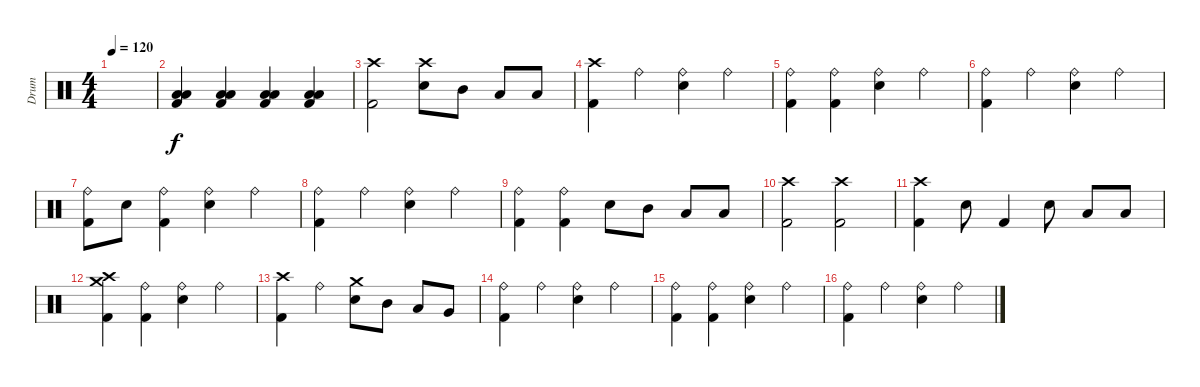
\track ("Drum" "Drum") {instrument percussion}
\staff {score}
\articulation defaults
\ts (4 4)
\tempo 120
\clef neutral
\ks c
|
("Kick (hit) 2" "Low Tom (hit)" "Low Floor Tom (hit)").4 ("Kick (hit) 2" "Low Tom (hit)" "Low Floor Tom (hit)").4 ("Kick (hit) 2" "Low Floor Tom (hit)" "Low Tom (hit)").4 ("Kick (hit) 2" "Low Floor Tom (hit)" "Low Tom (hit)").4 |
("Kick (hit) 2" "Crash high (hit)").2 ("Crash high (hit)" "Snare (hit) 2").8 "Mid Tom (hit)".8 "Low Tom (hit)".8 "Low Floor Tom (hit)".8 |
("Crash high (hit)" "Kick (hit) 2").4 "Ride (bell)".4 ("Ride (bell)" "Snare (hit) 2").4 "Ride (bell)".4 |
("Ride (bell)" "Kick (hit) 2").4 ("Ride (bell)" "Kick (hit) 2").4 ("Ride (bell)" "Snare (hit) 2").4 "Ride (bell)".4 |
("Ride (bell)" "Kick (hit) 2").4 "Ride (bell)".4 ("Ride (bell)" "Snare (hit) 2").4 "Ride (bell)".4 |
("Ride (bell)" "Kick (hit) 2").8 "Snare (hit) 2".8 ("Ride (bell)" "Kick (hit) 2").4 ("Ride (bell)" "Snare (hit) 2").4 "Ride (bell)".4 |
("Ride (bell)" "Kick (hit) 2").4 "Ride (bell)".4 ("Ride (bell)" "Snare (hit) 2").4 "Ride (bell)".4 |
("Ride (bell)" "Kick (hit) 2").4 ("Ride (bell)" "Kick (hit) 2").4 "Snare (hit) 2".8 "Mid Tom (hit)".8 "Low Tom (hit)".8 "Low Floor Tom (hit)".8 |
("Crash high (hit)" "Kick (hit) 2").2 ("Kick (hit) 2" "Crash high (hit)").2 |
("Kick (hit) 2" "Crash high (hit)").4 "Snare (hit) 2".8 "Kick (hit) 2".4 "Snare (hit) 2".8 "Low Tom (hit)".8 "Low Floor Tom (hit)".8 |
("Kick (hit) 2" "Crash high (hit)" "Crash medium (hit)").4 ("Kick (hit) 2" "Ride (bell)").4 ("Ride (bell)" "Snare (hit) 2").4 "Ride (bell)".4 |
("Kick (hit) 2" "Crash high (hit)").4 "Ride (bell)".4 ("Crash medium (hit)" "Snare (hit) 2").8 "Mid Tom (hit)".8 "Low Tom (hit)".8 "Very Low Tom (hit)".8 |
("Ride (bell)" "Kick (hit) 2").4 "Ride (bell)".4 ("Ride (bell)" "Snare (hit) 2").4 "Ride (bell)".4 |
("Ride (bell)" "Kick (hit) 2").4 ("Ride (bell)" "Kick (hit) 2").4 ("Ride (bell)" "Snare (hit) 2").4 "Ride (bell)".4 |
("Ride (bell)" "Kick (hit) 2").4 "Ride (bell)".4 ("Ride (bell)" "Snare (hit) 2").4 "Ride (bell)".4
